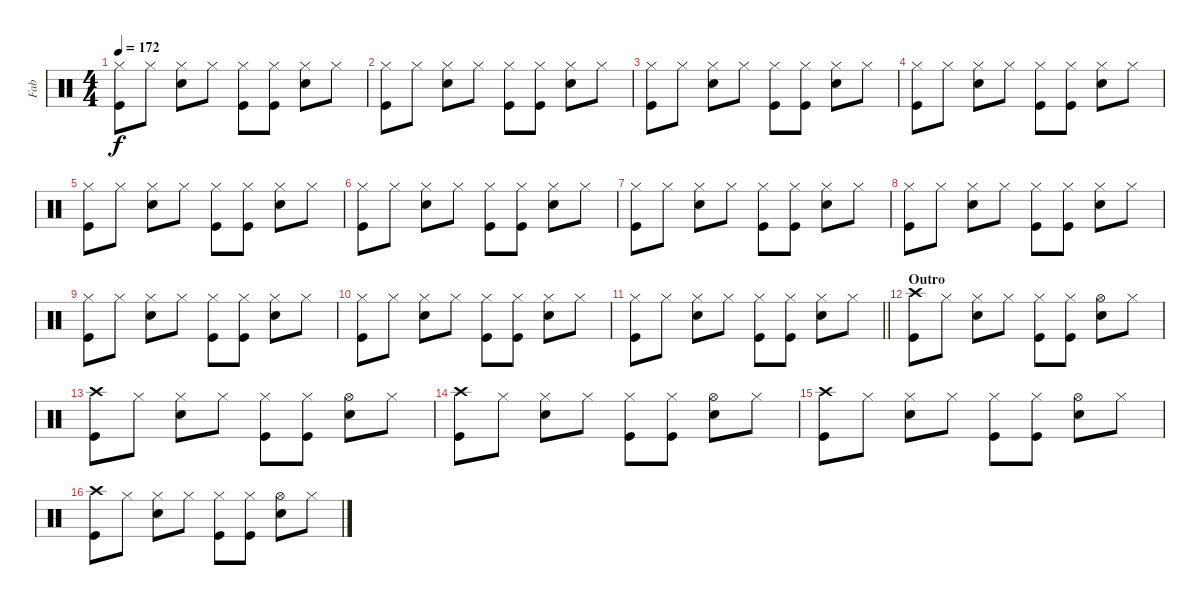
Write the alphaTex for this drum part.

\track ("Fab" "Fab") {instrument percussion}
\staff {score}
\articulation defaults
\ts (4 4)
\tempo 172
\clef neutral
\ks c
("Hi-Hat (closed)" "Kick (hit)").8{dy f} "Hi-Hat (closed)".8 ("Hi-Hat (closed)" "Snare (hit) 2").8 "Hi-Hat (closed)".8 ("Hi-Hat (closed)" "Kick (hit)").8 ("Hi-Hat (closed)" "Kick (hit)").8 ("Hi-Hat (closed)" "Snare (hit) 2").8 "Hi-Hat (closed)".8 |
("Hi-Hat (closed)" "Kick (hit)").8 "Hi-Hat (closed)".8 ("Hi-Hat (closed)" "Snare (hit) 2").8 "Hi-Hat (closed)".8 ("Hi-Hat (closed)" "Kick (hit)").8 ("Hi-Hat (closed)" "Kick (hit)").8 ("Hi-Hat (closed)" "Snare (hit) 2").8 "Hi-Hat (closed)".8 |
("Hi-Hat (closed)" "Kick (hit)").8 "Hi-Hat (closed)".8 ("Hi-Hat (closed)" "Snare (hit) 2").8 "Hi-Hat (closed)".8 ("Hi-Hat (closed)" "Kick (hit)").8 ("Hi-Hat (closed)" "Kick (hit)").8 ("Hi-Hat (closed)" "Snare (hit) 2").8 "Hi-Hat (closed)".8 |
("Hi-Hat (closed)" "Kick (hit)").8 "Hi-Hat (closed)".8 ("Hi-Hat (closed)" "Snare (hit) 2").8 "Hi-Hat (closed)".8 ("Hi-Hat (closed)" "Kick (hit)").8 ("Hi-Hat (closed)" "Kick (hit)").8 ("Hi-Hat (closed)" "Snare (hit) 2").8 "Hi-Hat (closed)".8 |
("Hi-Hat (closed)" "Kick (hit)").8 "Hi-Hat (closed)".8 ("Hi-Hat (closed)" "Snare (hit) 2").8 "Hi-Hat (closed)".8 ("Hi-Hat (closed)" "Kick (hit)").8 ("Hi-Hat (closed)" "Kick (hit)").8 ("Hi-Hat (closed)" "Snare (hit) 2").8 "Hi-Hat (closed)".8 |
("Hi-Hat (closed)" "Kick (hit)").8 "Hi-Hat (closed)".8 ("Hi-Hat (closed)" "Snare (hit) 2").8 "Hi-Hat (closed)".8 ("Hi-Hat (closed)" "Kick (hit)").8 ("Hi-Hat (closed)" "Kick (hit)").8 ("Hi-Hat (closed)" "Snare (hit) 2").8 "Hi-Hat (closed)".8 |
("Hi-Hat (closed)" "Kick (hit)").8 "Hi-Hat (closed)".8 ("Hi-Hat (closed)" "Snare (hit) 2").8 "Hi-Hat (closed)".8 ("Hi-Hat (closed)" "Kick (hit)").8 ("Hi-Hat (closed)" "Kick (hit)").8 ("Hi-Hat (closed)" "Snare (hit) 2").8 "Hi-Hat (closed)".8 |
("Hi-Hat (closed)" "Kick (hit)").8 "Hi-Hat (closed)".8 ("Hi-Hat (closed)" "Snare (hit) 2").8 "Hi-Hat (closed)".8 ("Hi-Hat (closed)" "Kick (hit)").8 ("Hi-Hat (closed)" "Kick (hit)").8 ("Hi-Hat (closed)" "Snare (hit) 2").8 "Hi-Hat (closed)".8 |
("Hi-Hat (closed)" "Kick (hit)").8 "Hi-Hat (closed)".8 ("Hi-Hat (closed)" "Snare (hit) 2").8 "Hi-Hat (closed)".8 ("Hi-Hat (closed)" "Kick (hit)").8 ("Hi-Hat (closed)" "Kick (hit)").8 ("Hi-Hat (closed)" "Snare (hit) 2").8 "Hi-Hat (closed)".8 |
("Hi-Hat (closed)" "Kick (hit)").8 "Hi-Hat (closed)".8 ("Hi-Hat (closed)" "Snare (hit) 2").8 "Hi-Hat (closed)".8 ("Hi-Hat (closed)" "Kick (hit)").8 ("Hi-Hat (closed)" "Kick (hit)").8 ("Hi-Hat (closed)" "Snare (hit) 2").8 "Hi-Hat (closed)".8 |
\barLineRight lightlight
("Hi-Hat (closed)" "Kick (hit)").8 "Hi-Hat (closed)".8 ("Hi-Hat (closed)" "Snare (hit) 2").8 "Hi-Hat (closed)".8 ("Hi-Hat (closed)" "Kick (hit)").8 ("Hi-Hat (closed)" "Kick (hit)").8 ("Hi-Hat (closed)" "Snare (hit) 2").8 "Hi-Hat (closed)".8 |
\section ("" "Outro")
("Crash high (hit)" "Kick (hit)").8 "Hi-Hat (closed)".8 ("Hi-Hat (closed)" "Snare (hit) 2").8 "Hi-Hat (closed)".8 ("Hi-Hat (closed)" "Kick (hit)").8 ("Hi-Hat (closed)" "Kick (hit)").8 ("Hi-Hat (open)" "Snare (hit) 2").8 "Hi-Hat (closed)".8 |
("Crash high (hit)" "Kick (hit)").8 "Hi-Hat (closed)".8 ("Hi-Hat (closed)" "Snare (hit) 2").8 "Hi-Hat (closed)".8 ("Hi-Hat (closed)" "Kick (hit)").8 ("Hi-Hat (closed)" "Kick (hit)").8 ("Hi-Hat (open)" "Snare (hit) 2").8 "Hi-Hat (closed)".8 |
("Crash high (hit)" "Kick (hit)").8 "Hi-Hat (closed)".8 ("Hi-Hat (closed)" "Snare (hit) 2").8 "Hi-Hat (closed)".8 ("Hi-Hat (closed)" "Kick (hit)").8 ("Hi-Hat (closed)" "Kick (hit)").8 ("Hi-Hat (open)" "Snare (hit) 2").8 "Hi-Hat (closed)".8 |
("Crash high (hit)" "Kick (hit)").8 "Hi-Hat (closed)".8 ("Hi-Hat (closed)" "Snare (hit) 2").8 "Hi-Hat (closed)".8 ("Hi-Hat (closed)" "Kick (hit)").8 ("Hi-Hat (closed)" "Kick (hit)").8 ("Hi-Hat (open)" "Snare (hit) 2").8 "Hi-Hat (closed)".8 |
("Crash high (hit)" "Kick (hit)").8 "Hi-Hat (closed)".8 ("Hi-Hat (closed)" "Snare (hit) 2").8 "Hi-Hat (closed)".8 ("Hi-Hat (closed)" "Kick (hit)").8 ("Hi-Hat (closed)" "Kick (hit)").8 ("Hi-Hat (open)" "Snare (hit) 2").8 "Hi-Hat (closed)".8
